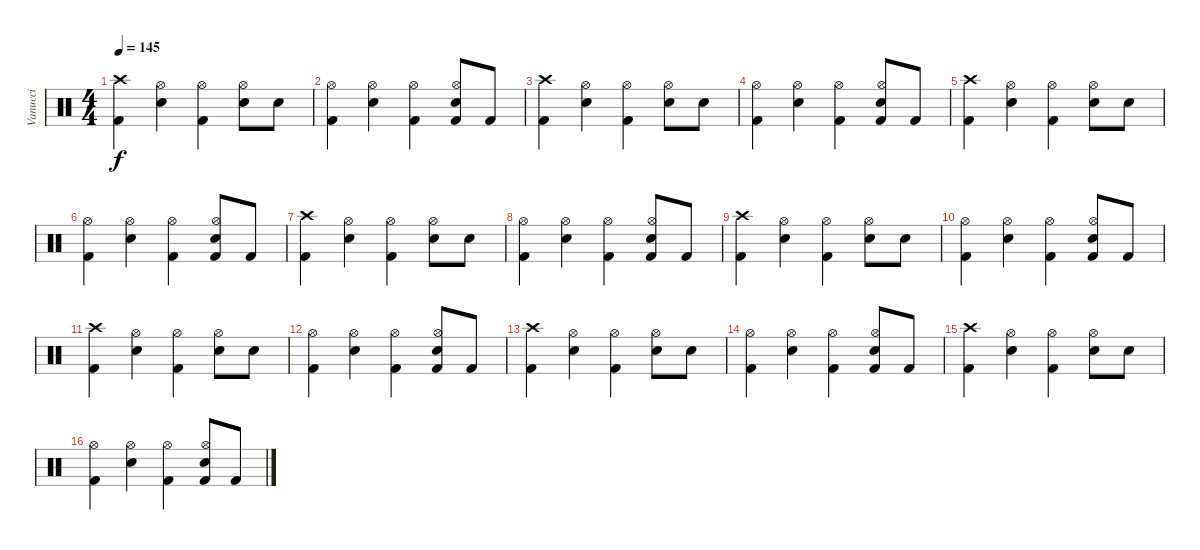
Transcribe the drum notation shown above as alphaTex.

\track ("Vanucci" "Vanucci") {instrument percussion}
\staff {score}
\articulation defaults
\ts (4 4)
\tempo 145
\clef neutral
\ks c
("Crash high (hit)" "Kick (hit) 2").4{dy f} ("Hi-Hat (open)" "Electric Snare (hit)").4 ("Hi-Hat (open)" "Kick (hit) 2").4 ("Hi-Hat (open)" "Electric Snare (hit)").8 "Electric Snare (hit)".8 |
("Hi-Hat (open)" "Kick (hit) 2").4 ("Hi-Hat (open)" "Electric Snare (hit)").4 ("Hi-Hat (open)" "Kick (hit) 2").4 ("Hi-Hat (open)" "Electric Snare (hit)" "Kick (hit) 2").8 "Kick (hit) 2".8 |
("Crash high (hit)" "Kick (hit) 2").4 ("Hi-Hat (open)" "Electric Snare (hit)").4 ("Hi-Hat (open)" "Kick (hit) 2").4 ("Hi-Hat (open)" "Electric Snare (hit)").8 "Electric Snare (hit)".8 |
("Hi-Hat (open)" "Kick (hit) 2").4 ("Hi-Hat (open)" "Electric Snare (hit)").4 ("Hi-Hat (open)" "Kick (hit) 2").4 ("Hi-Hat (open)" "Electric Snare (hit)" "Kick (hit) 2").8 "Kick (hit) 2".8 |
("Crash high (hit)" "Kick (hit) 2").4 ("Hi-Hat (open)" "Electric Snare (hit)").4 ("Hi-Hat (open)" "Kick (hit) 2").4 ("Hi-Hat (open)" "Electric Snare (hit)").8 "Electric Snare (hit)".8 |
("Hi-Hat (open)" "Kick (hit) 2").4 ("Hi-Hat (open)" "Electric Snare (hit)").4 ("Hi-Hat (open)" "Kick (hit) 2").4 ("Hi-Hat (open)" "Electric Snare (hit)" "Kick (hit) 2").8 "Kick (hit) 2".8 |
("Crash high (hit)" "Kick (hit) 2").4 ("Hi-Hat (open)" "Electric Snare (hit)").4 ("Hi-Hat (open)" "Kick (hit) 2").4 ("Hi-Hat (open)" "Electric Snare (hit)").8 "Electric Snare (hit)".8 |
("Hi-Hat (open)" "Kick (hit) 2").4 ("Hi-Hat (open)" "Electric Snare (hit)").4 ("Hi-Hat (open)" "Kick (hit) 2").4 ("Hi-Hat (open)" "Electric Snare (hit)" "Kick (hit) 2").8 "Kick (hit) 2".8 |
("Crash high (hit)" "Kick (hit) 2").4 ("Hi-Hat (open)" "Electric Snare (hit)").4 ("Hi-Hat (open)" "Kick (hit) 2").4 ("Hi-Hat (open)" "Electric Snare (hit)").8 "Electric Snare (hit)".8 |
("Hi-Hat (open)" "Kick (hit) 2").4 ("Hi-Hat (open)" "Electric Snare (hit)").4 ("Hi-Hat (open)" "Kick (hit) 2").4 ("Hi-Hat (open)" "Electric Snare (hit)" "Kick (hit) 2").8 "Kick (hit) 2".8 |
("Crash high (hit)" "Kick (hit) 2").4 ("Hi-Hat (open)" "Electric Snare (hit)").4 ("Hi-Hat (open)" "Kick (hit) 2").4 ("Hi-Hat (open)" "Electric Snare (hit)").8 "Electric Snare (hit)".8 |
("Hi-Hat (open)" "Kick (hit) 2").4 ("Hi-Hat (open)" "Electric Snare (hit)").4 ("Hi-Hat (open)" "Kick (hit) 2").4 ("Hi-Hat (open)" "Electric Snare (hit)" "Kick (hit) 2").8 "Kick (hit) 2".8 |
("Crash high (hit)" "Kick (hit) 2").4 ("Hi-Hat (open)" "Electric Snare (hit)").4 ("Hi-Hat (open)" "Kick (hit) 2").4 ("Hi-Hat (open)" "Electric Snare (hit)").8 "Electric Snare (hit)".8 |
("Hi-Hat (open)" "Kick (hit) 2").4 ("Hi-Hat (open)" "Electric Snare (hit)").4 ("Hi-Hat (open)" "Kick (hit) 2").4 ("Hi-Hat (open)" "Electric Snare (hit)" "Kick (hit) 2").8 "Kick (hit) 2".8 |
("Crash high (hit)" "Kick (hit) 2").4 ("Hi-Hat (open)" "Electric Snare (hit)").4 ("Hi-Hat (open)" "Kick (hit) 2").4 ("Hi-Hat (open)" "Electric Snare (hit)").8 "Electric Snare (hit)".8 |
("Hi-Hat (open)" "Kick (hit) 2").4 ("Hi-Hat (open)" "Electric Snare (hit)").4 ("Hi-Hat (open)" "Kick (hit) 2").4 ("Hi-Hat (open)" "Electric Snare (hit)" "Kick (hit) 2").8 "Kick (hit) 2".8
